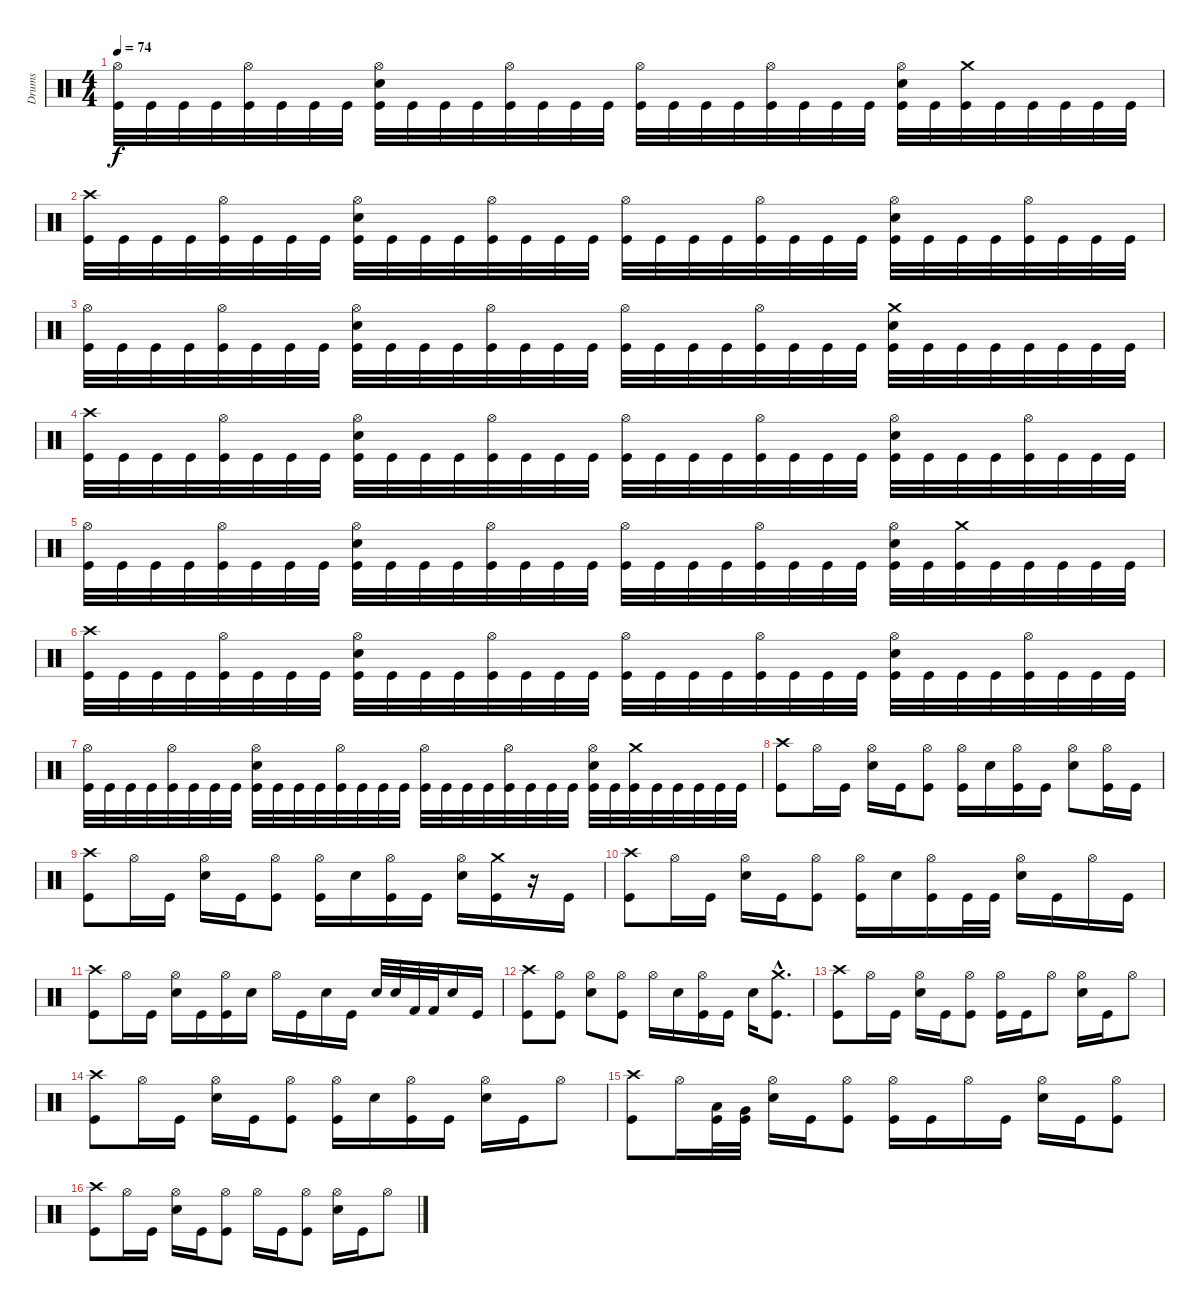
\track ("Drums" "Drums") {instrument percussion}
\staff {score}
\articulation defaults
\ts (4 4)
\tempo 74
\clef neutral
\ks c
("Hi-Hat (open)" "Kick (hit)").32{dy f} "Kick (hit)".32 "Kick (hit)".32 "Kick (hit)".32 ("Hi-Hat (open)" "Kick (hit)").32 "Kick (hit)".32 "Kick (hit)".32 "Kick (hit)".32 ("Hi-Hat (open)" "Snare (hit) 2" "Kick (hit)").32 "Kick (hit)".32 "Kick (hit)".32 "Kick (hit)".32 ("Hi-Hat (open)" "Kick (hit)").32 "Kick (hit)".32 "Kick (hit)".32 "Kick (hit)".32 ("Hi-Hat (open)" "Kick (hit)").32 "Kick (hit)".32 "Kick (hit)".32 "Kick (hit)".32 ("Hi-Hat (open)" "Kick (hit)").32 "Kick (hit)".32 "Kick (hit)".32 "Kick (hit)".32 ("Hi-Hat (open)" "Snare (hit) 2" "Kick (hit)").32 "Kick (hit)".32 ("Crash medium (hit)" "Kick (hit)").32 "Kick (hit)".32 "Kick (hit)".32 "Kick (hit)".32 "Kick (hit)".32 "Kick (hit)".32 |
("Crash high (hit)" "Kick (hit)").32 "Kick (hit)".32 "Kick (hit)".32 "Kick (hit)".32 ("Hi-Hat (open)" "Kick (hit)").32 "Kick (hit)".32 "Kick (hit)".32 "Kick (hit)".32 ("Hi-Hat (open)" "Snare (hit) 2" "Kick (hit)").32 "Kick (hit)".32 "Kick (hit)".32 "Kick (hit)".32 ("Hi-Hat (open)" "Kick (hit)").32 "Kick (hit)".32 "Kick (hit)".32 "Kick (hit)".32 ("Hi-Hat (open)" "Kick (hit)").32 "Kick (hit)".32 "Kick (hit)".32 "Kick (hit)".32 ("Hi-Hat (open)" "Kick (hit)").32 "Kick (hit)".32 "Kick (hit)".32 "Kick (hit)".32 ("Hi-Hat (open)" "Snare (hit) 2" "Kick (hit)").32 "Kick (hit)".32 "Kick (hit)".32 "Kick (hit)".32 ("Hi-Hat (open)" "Kick (hit)").32 "Kick (hit)".32 "Kick (hit)".32 "Kick (hit)".32 |
("Hi-Hat (open)" "Kick (hit)").32 "Kick (hit)".32 "Kick (hit)".32 "Kick (hit)".32 ("Hi-Hat (open)" "Kick (hit)").32 "Kick (hit)".32 "Kick (hit)".32 "Kick (hit)".32 ("Hi-Hat (open)" "Snare (hit) 2" "Kick (hit)").32 "Kick (hit)".32 "Kick (hit)".32 "Kick (hit)".32 ("Hi-Hat (open)" "Kick (hit)").32 "Kick (hit)".32 "Kick (hit)".32 "Kick (hit)".32 ("Hi-Hat (open)" "Kick (hit)").32 "Kick (hit)".32 "Kick (hit)".32 "Kick (hit)".32 ("Hi-Hat (open)" "Kick (hit)").32 "Kick (hit)".32 "Kick (hit)".32 "Kick (hit)".32 ("Crash medium (hit)" "Snare (hit) 2" "Kick (hit)").32 "Kick (hit)".32 "Kick (hit)".32 "Kick (hit)".32 "Kick (hit)".32 "Kick (hit)".32 "Kick (hit)".32 "Kick (hit)".32 |
("Crash high (hit)" "Kick (hit)").32 "Kick (hit)".32 "Kick (hit)".32 "Kick (hit)".32 ("Hi-Hat (open)" "Kick (hit)").32 "Kick (hit)".32 "Kick (hit)".32 "Kick (hit)".32 ("Hi-Hat (open)" "Snare (hit) 2" "Kick (hit)").32 "Kick (hit)".32 "Kick (hit)".32 "Kick (hit)".32 ("Hi-Hat (open)" "Kick (hit)").32 "Kick (hit)".32 "Kick (hit)".32 "Kick (hit)".32 ("Hi-Hat (open)" "Kick (hit)").32 "Kick (hit)".32 "Kick (hit)".32 "Kick (hit)".32 ("Hi-Hat (open)" "Kick (hit)").32 "Kick (hit)".32 "Kick (hit)".32 "Kick (hit)".32 ("Hi-Hat (open)" "Snare (hit) 2" "Kick (hit)").32 "Kick (hit)".32 "Kick (hit)".32 "Kick (hit)".32 ("Hi-Hat (open)" "Kick (hit)").32 "Kick (hit)".32 "Kick (hit)".32 "Kick (hit)".32 |
("Hi-Hat (open)" "Kick (hit)").32 "Kick (hit)".32 "Kick (hit)".32 "Kick (hit)".32 ("Hi-Hat (open)" "Kick (hit)").32 "Kick (hit)".32 "Kick (hit)".32 "Kick (hit)".32 ("Hi-Hat (open)" "Snare (hit) 2" "Kick (hit)").32 "Kick (hit)".32 "Kick (hit)".32 "Kick (hit)".32 ("Hi-Hat (open)" "Kick (hit)").32 "Kick (hit)".32 "Kick (hit)".32 "Kick (hit)".32 ("Hi-Hat (open)" "Kick (hit)").32 "Kick (hit)".32 "Kick (hit)".32 "Kick (hit)".32 ("Hi-Hat (open)" "Kick (hit)").32 "Kick (hit)".32 "Kick (hit)".32 "Kick (hit)".32 ("Hi-Hat (open)" "Snare (hit) 2" "Kick (hit)").32 "Kick (hit)".32 ("Crash medium (hit)" "Kick (hit)").32 "Kick (hit)".32 "Kick (hit)".32 "Kick (hit)".32 "Kick (hit)".32 "Kick (hit)".32 |
("Crash high (hit)" "Kick (hit)").32 "Kick (hit)".32 "Kick (hit)".32 "Kick (hit)".32 ("Hi-Hat (open)" "Kick (hit)").32 "Kick (hit)".32 "Kick (hit)".32 "Kick (hit)".32 ("Hi-Hat (open)" "Snare (hit) 2" "Kick (hit)").32 "Kick (hit)".32 "Kick (hit)".32 "Kick (hit)".32 ("Hi-Hat (open)" "Kick (hit)").32 "Kick (hit)".32 "Kick (hit)".32 "Kick (hit)".32 ("Hi-Hat (open)" "Kick (hit)").32 "Kick (hit)".32 "Kick (hit)".32 "Kick (hit)".32 ("Hi-Hat (open)" "Kick (hit)").32 "Kick (hit)".32 "Kick (hit)".32 "Kick (hit)".32 ("Hi-Hat (open)" "Snare (hit) 2" "Kick (hit)").32 "Kick (hit)".32 "Kick (hit)".32 "Kick (hit)".32 ("Hi-Hat (open)" "Kick (hit)").32 "Kick (hit)".32 "Kick (hit)".32 "Kick (hit)".32 |
("Hi-Hat (open)" "Kick (hit)").32 "Kick (hit)".32 "Kick (hit)".32 "Kick (hit)".32 ("Hi-Hat (open)" "Kick (hit)").32 "Kick (hit)".32 "Kick (hit)".32 "Kick (hit)".32 ("Hi-Hat (open)" "Snare (hit) 2" "Kick (hit)").32 "Kick (hit)".32 "Kick (hit)".32 "Kick (hit)".32 ("Hi-Hat (open)" "Kick (hit)").32 "Kick (hit)".32 "Kick (hit)".32 "Kick (hit)".32 ("Hi-Hat (open)" "Kick (hit)").32 "Kick (hit)".32 "Kick (hit)".32 "Kick (hit)".32 ("Hi-Hat (open)" "Kick (hit)").32 "Kick (hit)".32 "Kick (hit)".32 "Kick (hit)".32 ("Hi-Hat (open)" "Snare (hit) 2" "Kick (hit)").32 "Kick (hit)".32 ("Crash medium (hit)" "Kick (hit)").32 "Kick (hit)".32 "Kick (hit)".32 "Kick (hit)".32 "Kick (hit)".32 "Kick (hit)".32 |
\section ("" "")
("Crash high (hit)" "Kick (hit)").8 "Hi-Hat (open)".16 "Kick (hit)".16 ("Hi-Hat (open)" "Snare (hit) 2").16 "Kick (hit)".16 ("Hi-Hat (open)" "Kick (hit)").8 ("Hi-Hat (open)" "Kick (hit)").16 "Snare (hit) 2".16 ("Hi-Hat (open)" "Kick (hit)").16 "Kick (hit)".16 ("Hi-Hat (open)" "Snare (hit) 2").8 ("Hi-Hat (open)" "Kick (hit)").16 "Kick (hit)".16 |
("Crash high (hit)" "Kick (hit)").8 "Hi-Hat (open)".16 "Kick (hit)".16 ("Hi-Hat (open)" "Snare (hit) 2").16 "Kick (hit)".16 ("Hi-Hat (open)" "Kick (hit)").8 ("Hi-Hat (open)" "Kick (hit)").16 "Snare (hit) 2".16 ("Hi-Hat (open)" "Kick (hit)").16 "Kick (hit)".16 ("Hi-Hat (open)" "Snare (hit) 2").16 ("Crash medium (hit)" "Kick (hit)").16 r.16 "Kick (hit)".16 |
("Crash high (hit)" "Kick (hit)").8 "Hi-Hat (open)".16 "Kick (hit)".16 ("Hi-Hat (open)" "Snare (hit) 2").16 "Kick (hit)".16 ("Hi-Hat (open)" "Kick (hit)").8 ("Hi-Hat (open)" "Kick (hit)").16 "Snare (hit) 2".16 ("Hi-Hat (open)" "Kick (hit)").16 "Kick (hit)".32 "Kick (hit)".32 ("Hi-Hat (open)" "Snare (hit) 2").16 "Kick (hit)".16 "Hi-Hat (open)".16 "Kick (hit)".16 |
("Crash high (hit)" "Kick (hit)").8 "Hi-Hat (open)".16 "Kick (hit)".16 ("Hi-Hat (open)" "Snare (hit) 2").16 "Kick (hit)".16 ("Hi-Hat (open)" "Kick (hit)").16 "Snare (hit) 2".16 "Hi-Hat (open)".16 "Kick (hit)".16 "Snare (hit) 2".16 "Kick (hit)".16 "Snare (hit) 2".32 "Snare (hit) 2".32 "Kick (hit) 2".32 "Kick (hit) 2".32 "Snare (hit) 2".16 "Kick (hit)".16 |
("Crash high (hit)" "Kick (hit)").8 ("Hi-Hat (open)" "Kick (hit)").8 ("Hi-Hat (open)" "Snare (hit) 2").8 ("Hi-Hat (open)" "Kick (hit)").8 "Hi-Hat (open)".16 "Snare (hit) 2".16 ("Hi-Hat (open)" "Kick (hit)").16 "Kick (hit)".16 "Snare (hit) 2".16 ("Crash medium (hit)"{hac} "Kick (hit)"{hac}).8{d} |
("Crash high (hit)" "Kick (hit)").8 "Hi-Hat (open)".16 "Kick (hit)".16 ("Hi-Hat (open)" "Snare (hit) 2").16 "Kick (hit)".16 ("Hi-Hat (open)" "Kick (hit)").8 ("Hi-Hat (open)" "Kick (hit)").16 "Kick (hit)".16 "Hi-Hat (open)".8 ("Hi-Hat (open)" "Snare (hit) 2").16 "Kick (hit)".16 "Hi-Hat (open)".8 |
("Crash high (hit)" "Kick (hit)").8 "Hi-Hat (open)".16 "Kick (hit)".16 ("Hi-Hat (open)" "Snare (hit) 2").16 "Kick (hit)".16 ("Hi-Hat (open)" "Kick (hit)").8 ("Hi-Hat (open)" "Kick (hit)").16 "Snare (hit) 2".16 ("Hi-Hat (open)" "Kick (hit)").16 "Kick (hit)".16 ("Hi-Hat (open)" "Snare (hit) 2").16 "Kick (hit)".16 "Hi-Hat (open)".8 |
("Crash high (hit)" "Kick (hit)").8 "Hi-Hat (open)".16 ("Low Floor Tom (hit)" "Kick (hit)").32 ("Very Low Tom (hit)" "Kick (hit)").32 ("Hi-Hat (open)" "Snare (hit) 2").16 "Kick (hit)".16 ("Hi-Hat (open)" "Kick (hit)").8 ("Hi-Hat (open)" "Kick (hit)").16 "Kick (hit)".16 "Hi-Hat (open)".16 "Kick (hit)".16 ("Hi-Hat (open)" "Snare (hit) 2").16 "Kick (hit)".16 ("Hi-Hat (open)" "Kick (hit)").8 |
\section ("" "")
("Crash high (hit)" "Kick (hit)").8 "Hi-Hat (open)".16 "Kick (hit)".16 ("Hi-Hat (open)" "Snare (hit) 2").16 "Kick (hit)".16 ("Hi-Hat (open)" "Kick (hit)").8 "Hi-Hat (open)".16 "Kick (hit)".16 ("Hi-Hat (open)" "Kick (hit)").8 ("Hi-Hat (open)" "Snare (hit) 2").16 "Kick (hit)".16 "Hi-Hat (open)".8
